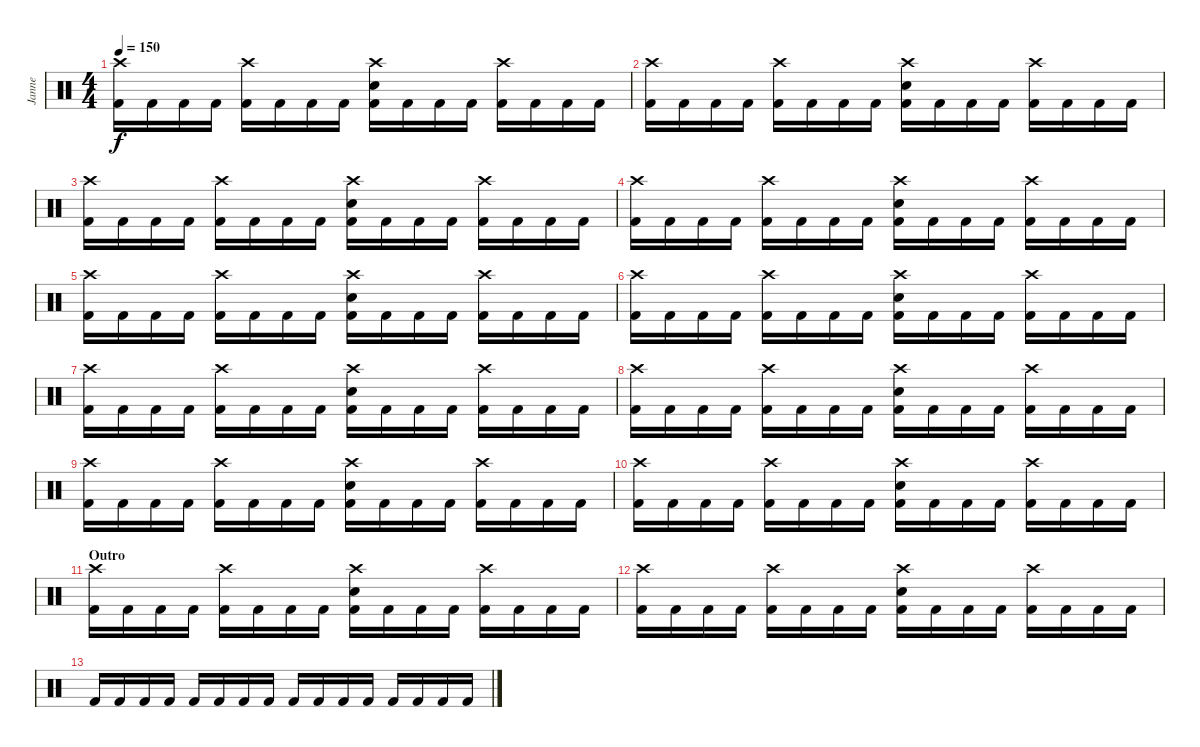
\track ("Janne" "Janne") {instrument percussion}
\staff {score}
\articulation defaults
\ts (4 4)
\tempo 150
\clef neutral
\ks c
("Crash high (hit)" "Kick (hit) 2").16{dy f} "Kick (hit) 2".16 "Kick (hit) 2".16 "Kick (hit) 2".16 ("Crash high (hit)" "Kick (hit) 2").16 "Kick (hit) 2".16 "Kick (hit) 2".16 "Kick (hit) 2".16 ("Crash high (hit)" "Electric Snare (hit)" "Kick (hit) 2").16 "Kick (hit) 2".16 "Kick (hit) 2".16 "Kick (hit) 2".16 ("Crash high (hit)" "Kick (hit) 2").16 "Kick (hit) 2".16 "Kick (hit) 2".16 "Kick (hit) 2".16 |
("Crash high (hit)" "Kick (hit) 2").16 "Kick (hit) 2".16 "Kick (hit) 2".16 "Kick (hit) 2".16 ("Crash high (hit)" "Kick (hit) 2").16 "Kick (hit) 2".16 "Kick (hit) 2".16 "Kick (hit) 2".16 ("Crash high (hit)" "Electric Snare (hit)" "Kick (hit) 2").16 "Kick (hit) 2".16 "Kick (hit) 2".16 "Kick (hit) 2".16 ("Crash high (hit)" "Kick (hit) 2").16 "Kick (hit) 2".16 "Kick (hit) 2".16 "Kick (hit) 2".16 |
("Crash high (hit)" "Kick (hit) 2").16 "Kick (hit) 2".16 "Kick (hit) 2".16 "Kick (hit) 2".16 ("Crash high (hit)" "Kick (hit) 2").16 "Kick (hit) 2".16 "Kick (hit) 2".16 "Kick (hit) 2".16 ("Crash high (hit)" "Electric Snare (hit)" "Kick (hit) 2").16 "Kick (hit) 2".16 "Kick (hit) 2".16 "Kick (hit) 2".16 ("Crash high (hit)" "Kick (hit) 2").16 "Kick (hit) 2".16 "Kick (hit) 2".16 "Kick (hit) 2".16 |
("Crash high (hit)" "Kick (hit) 2").16 "Kick (hit) 2".16 "Kick (hit) 2".16 "Kick (hit) 2".16 ("Crash high (hit)" "Kick (hit) 2").16 "Kick (hit) 2".16 "Kick (hit) 2".16 "Kick (hit) 2".16 ("Crash high (hit)" "Electric Snare (hit)" "Kick (hit) 2").16 "Kick (hit) 2".16 "Kick (hit) 2".16 "Kick (hit) 2".16 ("Crash high (hit)" "Kick (hit) 2").16 "Kick (hit) 2".16 "Kick (hit) 2".16 "Kick (hit) 2".16 |
("Crash high (hit)" "Kick (hit) 2").16 "Kick (hit) 2".16 "Kick (hit) 2".16 "Kick (hit) 2".16 ("Crash high (hit)" "Kick (hit) 2").16 "Kick (hit) 2".16 "Kick (hit) 2".16 "Kick (hit) 2".16 ("Crash high (hit)" "Electric Snare (hit)" "Kick (hit) 2").16 "Kick (hit) 2".16 "Kick (hit) 2".16 "Kick (hit) 2".16 ("Crash high (hit)" "Kick (hit) 2").16 "Kick (hit) 2".16 "Kick (hit) 2".16 "Kick (hit) 2".16 |
("Crash high (hit)" "Kick (hit) 2").16 "Kick (hit) 2".16 "Kick (hit) 2".16 "Kick (hit) 2".16 ("Crash high (hit)" "Kick (hit) 2").16 "Kick (hit) 2".16 "Kick (hit) 2".16 "Kick (hit) 2".16 ("Crash high (hit)" "Electric Snare (hit)" "Kick (hit) 2").16 "Kick (hit) 2".16 "Kick (hit) 2".16 "Kick (hit) 2".16 ("Crash high (hit)" "Kick (hit) 2").16 "Kick (hit) 2".16 "Kick (hit) 2".16 "Kick (hit) 2".16 |
("Crash high (hit)" "Kick (hit) 2").16 "Kick (hit) 2".16 "Kick (hit) 2".16 "Kick (hit) 2".16 ("Crash high (hit)" "Kick (hit) 2").16 "Kick (hit) 2".16 "Kick (hit) 2".16 "Kick (hit) 2".16 ("Crash high (hit)" "Electric Snare (hit)" "Kick (hit) 2").16 "Kick (hit) 2".16 "Kick (hit) 2".16 "Kick (hit) 2".16 ("Crash high (hit)" "Kick (hit) 2").16 "Kick (hit) 2".16 "Kick (hit) 2".16 "Kick (hit) 2".16 |
("Crash high (hit)" "Kick (hit) 2").16 "Kick (hit) 2".16 "Kick (hit) 2".16 "Kick (hit) 2".16 ("Crash high (hit)" "Kick (hit) 2").16 "Kick (hit) 2".16 "Kick (hit) 2".16 "Kick (hit) 2".16 ("Crash high (hit)" "Electric Snare (hit)" "Kick (hit) 2").16 "Kick (hit) 2".16 "Kick (hit) 2".16 "Kick (hit) 2".16 ("Crash high (hit)" "Kick (hit) 2").16 "Kick (hit) 2".16 "Kick (hit) 2".16 "Kick (hit) 2".16 |
("Crash high (hit)" "Kick (hit) 2").16 "Kick (hit) 2".16 "Kick (hit) 2".16 "Kick (hit) 2".16 ("Crash high (hit)" "Kick (hit) 2").16 "Kick (hit) 2".16 "Kick (hit) 2".16 "Kick (hit) 2".16 ("Crash high (hit)" "Electric Snare (hit)" "Kick (hit) 2").16 "Kick (hit) 2".16 "Kick (hit) 2".16 "Kick (hit) 2".16 ("Crash high (hit)" "Kick (hit) 2").16 "Kick (hit) 2".16 "Kick (hit) 2".16 "Kick (hit) 2".16 |
("Crash high (hit)" "Kick (hit) 2").16 "Kick (hit) 2".16 "Kick (hit) 2".16 "Kick (hit) 2".16 ("Crash high (hit)" "Kick (hit) 2").16 "Kick (hit) 2".16 "Kick (hit) 2".16 "Kick (hit) 2".16 ("Crash high (hit)" "Electric Snare (hit)" "Kick (hit) 2").16 "Kick (hit) 2".16 "Kick (hit) 2".16 "Kick (hit) 2".16 ("Crash high (hit)" "Kick (hit) 2").16 "Kick (hit) 2".16 "Kick (hit) 2".16 "Kick (hit) 2".16 |
\section ("" "Outro")
("Crash high (hit)" "Kick (hit) 2").16 "Kick (hit) 2".16 "Kick (hit) 2".16 "Kick (hit) 2".16 ("Crash high (hit)" "Kick (hit) 2").16 "Kick (hit) 2".16 "Kick (hit) 2".16 "Kick (hit) 2".16 ("Crash high (hit)" "Electric Snare (hit)" "Kick (hit) 2").16 "Kick (hit) 2".16 "Kick (hit) 2".16 "Kick (hit) 2".16 ("Crash high (hit)" "Kick (hit) 2").16 "Kick (hit) 2".16 "Kick (hit) 2".16 "Kick (hit) 2".16 |
("Crash high (hit)" "Kick (hit) 2").16 "Kick (hit) 2".16 "Kick (hit) 2".16 "Kick (hit) 2".16 ("Crash high (hit)" "Kick (hit) 2").16 "Kick (hit) 2".16 "Kick (hit) 2".16 "Kick (hit) 2".16 ("Crash high (hit)" "Electric Snare (hit)" "Kick (hit) 2").16 "Kick (hit) 2".16 "Kick (hit) 2".16 "Kick (hit) 2".16 ("Crash high (hit)" "Kick (hit) 2").16 "Kick (hit) 2".16 "Kick (hit) 2".16 "Kick (hit) 2".16 |
"Kick (hit) 2".16 "Kick (hit) 2".16 "Kick (hit) 2".16 "Kick (hit) 2".16 "Kick (hit) 2".16 "Kick (hit) 2".16 "Kick (hit) 2".16 "Kick (hit) 2".16 "Kick (hit) 2".16 "Kick (hit) 2".16 "Kick (hit) 2".16 "Kick (hit) 2".16 "Kick (hit) 2".16 "Kick (hit) 2".16 "Kick (hit) 2".16 "Kick (hit) 2".16
